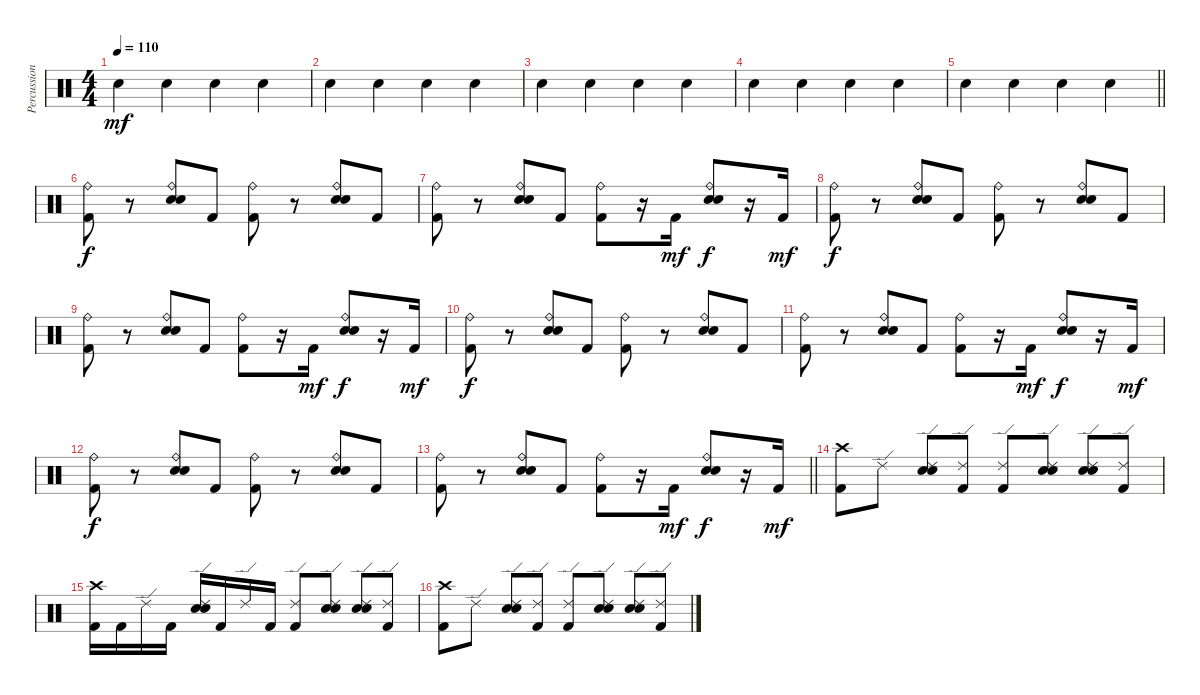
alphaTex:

\track ("Percussions" "Percussion") {instrument percussion}
\staff {score}
\articulation defaults
\ts (4 4)
\tempo 110
\clef neutral
\ks c "Hand Clap (hit)".4{dy mf} "Hand Clap (hit)".4 "Hand Clap (hit)".4 "Hand Clap (hit)".4
|
"Hand Clap (hit)".4 "Hand Clap (hit)".4 "Hand Clap (hit)".4 "Hand Clap (hit)".4 |
"Hand Clap (hit)".4 "Hand Clap (hit)".4 "Hand Clap (hit)".4 "Hand Clap (hit)".4 |
"Hand Clap (hit)".4 "Hand Clap (hit)".4 "Hand Clap (hit)".4 "Hand Clap (hit)".4 |
\barLineRight lightlight "Hand Clap (hit)".4 "Hand Clap (hit)".4 "Hand Clap (hit)".4 "Hand Clap (hit)".4
|
\section ("" "")
("Ride (bell)" "Kick (hit) 2").8{dy f} r.8 ("Ride (bell)" "Hand Clap (hit)" "Electric Snare (hit)").8 "Kick (hit) 2".8 ("Ride (bell)" "Kick (hit) 2").8 r.8 ("Ride (bell)" "Hand Clap (hit)" "Electric Snare (hit)").8 "Kick (hit) 2".8 |
("Ride (bell)" "Kick (hit) 2").8 r.8 ("Ride (bell)" "Hand Clap (hit)" "Electric Snare (hit)").8 "Kick (hit) 2".8 ("Ride (bell)" "Kick (hit) 2").8 r.16 "Kick (hit) 2".16{dy mf} ("Ride (bell)" "Hand Clap (hit)" "Electric Snare (hit)").8{dy f} r.16 "Kick (hit) 2".16{dy mf} |
("Ride (bell)" "Kick (hit) 2").8{dy f} r.8 ("Ride (bell)" "Hand Clap (hit)" "Electric Snare (hit)").8 "Kick (hit) 2".8 ("Ride (bell)" "Kick (hit) 2").8 r.8 ("Ride (bell)" "Hand Clap (hit)" "Electric Snare (hit)").8 "Kick (hit) 2".8 |
("Ride (bell)" "Kick (hit) 2").8 r.8 ("Ride (bell)" "Hand Clap (hit)" "Electric Snare (hit)").8 "Kick (hit) 2".8 ("Ride (bell)" "Kick (hit) 2").8 r.16 "Kick (hit) 2".16{dy mf} ("Ride (bell)" "Hand Clap (hit)" "Electric Snare (hit)").8{dy f} r.16 "Kick (hit) 2".16{dy mf} |
("Ride (bell)" "Kick (hit) 2").8{dy f} r.8 ("Ride (bell)" "Hand Clap (hit)" "Electric Snare (hit)").8 "Kick (hit) 2".8 ("Ride (bell)" "Kick (hit) 2").8 r.8 ("Ride (bell)" "Hand Clap (hit)" "Electric Snare (hit)").8 "Kick (hit) 2".8 |
("Ride (bell)" "Kick (hit) 2").8 r.8 ("Ride (bell)" "Hand Clap (hit)" "Electric Snare (hit)").8 "Kick (hit) 2".8 ("Ride (bell)" "Kick (hit) 2").8 r.16 "Kick (hit) 2".16{dy mf} ("Ride (bell)" "Hand Clap (hit)" "Electric Snare (hit)").8{dy f} r.16 "Kick (hit) 2".16{dy mf} |
("Ride (bell)" "Kick (hit) 2").8{dy f} r.8 ("Ride (bell)" "Hand Clap (hit)" "Electric Snare (hit)").8 "Kick (hit) 2".8 ("Ride (bell)" "Kick (hit) 2").8 r.8 ("Ride (bell)" "Hand Clap (hit)" "Electric Snare (hit)").8 "Kick (hit) 2".8 |
\barLineRight lightlight
("Ride (bell)" "Kick (hit) 2").8 r.8 ("Ride (bell)" "Hand Clap (hit)" "Electric Snare (hit)").8 "Kick (hit) 2".8 ("Ride (bell)" "Kick (hit) 2").8 r.16 "Kick (hit) 2".16{dy mf} ("Ride (bell)" "Hand Clap (hit)" "Electric Snare (hit)").8{dy f} r.16 "Kick (hit) 2".16{dy mf} |
\section ("" "")
("Crash high (hit)" "Kick (hit) 2").8 "Ride (edge) 2".8 ("Ride (edge) 2" "Hand Clap (hit)" "Electric Snare (hit)").8 ("Ride (edge) 2" "Kick (hit) 2").8 ("Ride (edge) 2" "Kick (hit) 2").8 ("Ride (edge) 2" "Hand Clap (hit)" "Electric Snare (hit)").8 ("Ride (edge) 2" "Hand Clap (hit)" "Electric Snare (hit)").8 ("Ride (edge) 2" "Kick (hit) 2").8 |
("Crash high (hit)" "Kick (hit) 2").16 "Kick (hit) 2".16 "Ride (edge) 2".16 "Kick (hit) 2".16 ("Ride (edge) 2" "Hand Clap (hit)" "Electric Snare (hit)").16 "Kick (hit) 2".16 "Ride (edge) 2".16 "Kick (hit) 2".16 ("Ride (edge) 2" "Kick (hit) 2").8 ("Ride (edge) 2" "Hand Clap (hit)" "Electric Snare (hit)").8 ("Ride (edge) 2" "Hand Clap (hit)" "Electric Snare (hit)").8 ("Ride (edge) 2" "Kick (hit) 2").8 |
("Crash high (hit)" "Kick (hit) 2").8 "Ride (edge) 2".8 ("Ride (edge) 2" "Hand Clap (hit)" "Electric Snare (hit)").8 ("Ride (edge) 2" "Kick (hit) 2").8 ("Ride (edge) 2" "Kick (hit) 2").8 ("Ride (edge) 2" "Hand Clap (hit)" "Electric Snare (hit)").8 ("Ride (edge) 2" "Hand Clap (hit)" "Electric Snare (hit)").8 ("Ride (edge) 2" "Kick (hit) 2").8
